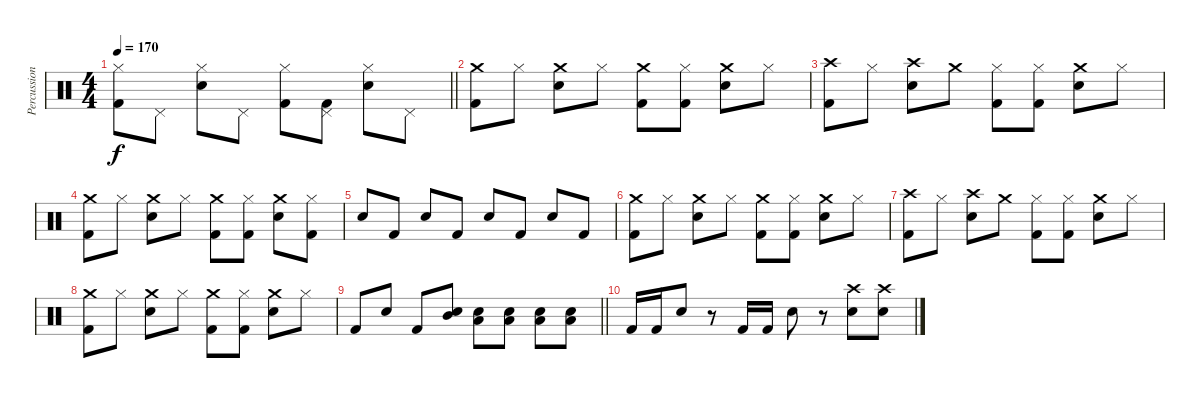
\track ("Percussion" "Percussion") {instrument percussion}
\staff {score}
\articulation defaults
\ts (4 4)
\tempo 170
\clef neutral
\barLineRight lightlight
\ks c
("Hi-Hat (closed)" "Kick (hit) 2").8{dy f} "Pedal Hi-Hat (hit)".8 ("Hi-Hat (closed)" "Snare (hit) 2").8 "Pedal Hi-Hat (hit)".8 ("Hi-Hat (closed)" "Kick (hit) 2").8 ("Pedal Hi-Hat (hit)" "Kick (hit) 2").8 ("Hi-Hat (closed)" "Snare (hit) 2").8 "Pedal Hi-Hat (hit)".8 |
("Crash medium (hit)" "Kick (hit) 2").8 "Hi-Hat (closed)".8 ("Crash medium (hit)" "Snare (hit) 2").8 "Hi-Hat (closed)".8 ("Crash medium (hit)" "Kick (hit) 2").8 ("Hi-Hat (closed)" "Kick (hit) 2").8 ("Crash medium (hit)" "Snare (hit) 2").8 "Hi-Hat (closed)".8 |
("Crash high (hit)" "Kick (hit) 2").8 "Hi-Hat (closed)".8 ("Crash high (hit)" "Snare (hit) 2").8 "Crash medium (hit)".8 ("Hi-Hat (closed)" "Kick (hit) 2").8 ("Hi-Hat (closed)" "Kick (hit) 2").8 ("Crash medium (hit)" "Snare (hit) 2").8 "Hi-Hat (closed)".8 |
("Crash medium (hit)" "Kick (hit) 2").8 "Hi-Hat (closed)".8 ("Crash medium (hit)" "Snare (hit) 2").8 "Hi-Hat (closed)".8 ("Crash medium (hit)" "Kick (hit) 2").8 ("Hi-Hat (closed)" "Kick (hit) 2").8 ("Crash medium (hit)" "Snare (hit) 2").8 ("Hi-Hat (closed)" "Kick (hit) 2").8 |
"Snare (hit) 2".8 "Kick (hit) 2".8 "Snare (hit) 2".8 "Kick (hit) 2".8 "Snare (hit) 2".8 "Kick (hit) 2".8 "Snare (hit) 2".8 "Kick (hit) 2".8 |
("Crash medium (hit)" "Kick (hit) 2").8 "Hi-Hat (closed)".8 ("Crash medium (hit)" "Snare (hit) 2").8 "Hi-Hat (closed)".8 ("Crash medium (hit)" "Kick (hit) 2").8 ("Hi-Hat (closed)" "Kick (hit) 2").8 ("Crash medium (hit)" "Snare (hit) 2").8 "Hi-Hat (closed)".8 |
("Crash high (hit)" "Kick (hit) 2").8 "Hi-Hat (closed)".8 ("Crash high (hit)" "Snare (hit) 2").8 "Crash medium (hit)".8 ("Hi-Hat (closed)" "Kick (hit) 2").8 ("Hi-Hat (closed)" "Kick (hit) 2").8 ("Crash medium (hit)" "Snare (hit) 2").8 "Hi-Hat (closed)".8 |
("Crash medium (hit)" "Kick (hit) 2").8 "Hi-Hat (closed)".8 ("Crash medium (hit)" "Snare (hit) 2").8 "Hi-Hat (closed)".8 ("Crash medium (hit)" "Kick (hit) 2").8 ("Hi-Hat (closed)" "Kick (hit) 2").8 ("Crash medium (hit)" "Snare (hit) 2").8 "Hi-Hat (closed)".8 |
\barLineRight lightlight "Kick (hit) 2".8 "Snare (hit) 2".8 "Kick (hit) 2".8
("Mid Tom (hit)" "Snare (hit) 2").8 ("Low Floor Tom (hit)" "Snare (hit) 2").8 ("Low Floor Tom (hit)" "Snare (hit) 2").8 ("Low Floor Tom (hit)" "Snare (hit) 2").8 ("Low Floor Tom (hit)" "Snare (hit) 2").8 |
"Kick (hit) 2".16 "Kick (hit) 2".16 "Snare (hit) 2".8 r.8 "Kick (hit) 2".16 "Kick (hit) 2".16 "Snare (hit) 2".8 r.8 ("Crash high (hit)" "Snare (hit) 2").8 ("Crash high (hit)" "Snare (hit) 2").8
